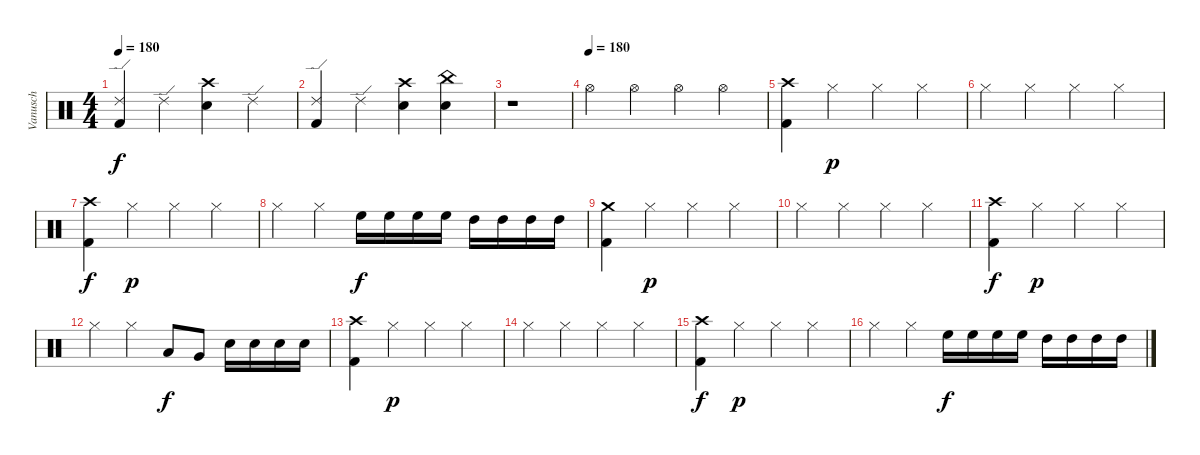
\track ("Vanusch" "Vanusch") {instrument percussion}
\staff {score}
\articulation defaults
\ts (4 4)
\tempo 180
\clef neutral
\ks c
("Ride (edge) 2" "Kick (hit) 2").4{dy f} "Ride (edge) 2".4 ("Crash high (hit)" "Snare (hit) 2").4 "Ride (edge) 2".4 |
("Ride (edge) 2" "Kick (hit) 2").4 "Ride (edge) 2".4 ("Crash high (hit)" "Snare (hit) 2").4 ("China (hit)" "Snare (hit) 2").4 |
r.1 |
\tempo (180)
"Hi-Hat (open)".4 "Hi-Hat (open)".4 "Hi-Hat (open)".4 "Hi-Hat (open)".4 |
("Crash high (hit)" "Kick (hit) 2").4 "Hi-Hat (closed)".4{dy p} "Hi-Hat (closed)".4 "Hi-Hat (closed)".4 |
"Hi-Hat (closed)".4 "Hi-Hat (closed)".4 "Hi-Hat (closed)".4 "Hi-Hat (closed)".4 |
("Crash high (hit)" "Kick (hit) 2").4{dy f} "Hi-Hat (closed)".4{dy p} "Hi-Hat (closed)".4 "Hi-Hat (closed)".4 |
"Hi-Hat (closed)".4 "Hi-Hat (closed)".4 "High Floor Tom (hit)".16{dy f} "High Floor Tom (hit)".16 "High Floor Tom (hit)".16 "High Floor Tom (hit)".16 "High Tom (hit)".16 "High Tom (hit)".16 "High Tom (hit)".16 "High Tom (hit)".16 |
("Crash medium (hit)" "Kick (hit) 2").4 "Hi-Hat (closed)".4{dy p} "Hi-Hat (closed)".4 "Hi-Hat (closed)".4 |
"Hi-Hat (closed)".4 "Hi-Hat (closed)".4 "Hi-Hat (closed)".4 "Hi-Hat (closed)".4 |
("Crash high (hit)" "Kick (hit) 2").4{dy f} "Hi-Hat (closed)".4{dy p} "Hi-Hat (closed)".4 "Hi-Hat (closed)".4 |
"Hi-Hat (closed)".4 "Hi-Hat (closed)".4 "Low Tom (hit)".8{dy f} "Very Low Tom (hit)".8 "Snare (hit) 2".16 "Snare (hit) 2".16 "Snare (hit) 2".16 "Snare (hit) 2".16 |
("Crash high (hit)" "Kick (hit) 2").4 "Hi-Hat (closed)".4{dy p} "Hi-Hat (closed)".4 "Hi-Hat (closed)".4 |
"Hi-Hat (closed)".4 "Hi-Hat (closed)".4 "Hi-Hat (closed)".4 "Hi-Hat (closed)".4 |
("Crash high (hit)" "Kick (hit) 2").4{dy f} "Hi-Hat (closed)".4{dy p} "Hi-Hat (closed)".4 "Hi-Hat (closed)".4 |
"Hi-Hat (closed)".4 "Hi-Hat (closed)".4 "High Floor Tom (hit)".16{dy f} "High Floor Tom (hit)".16 "High Floor Tom (hit)".16 "High Floor Tom (hit)".16 "High Tom (hit)".16 "High Tom (hit)".16 "High Tom (hit)".16 "High Tom (hit)".16
